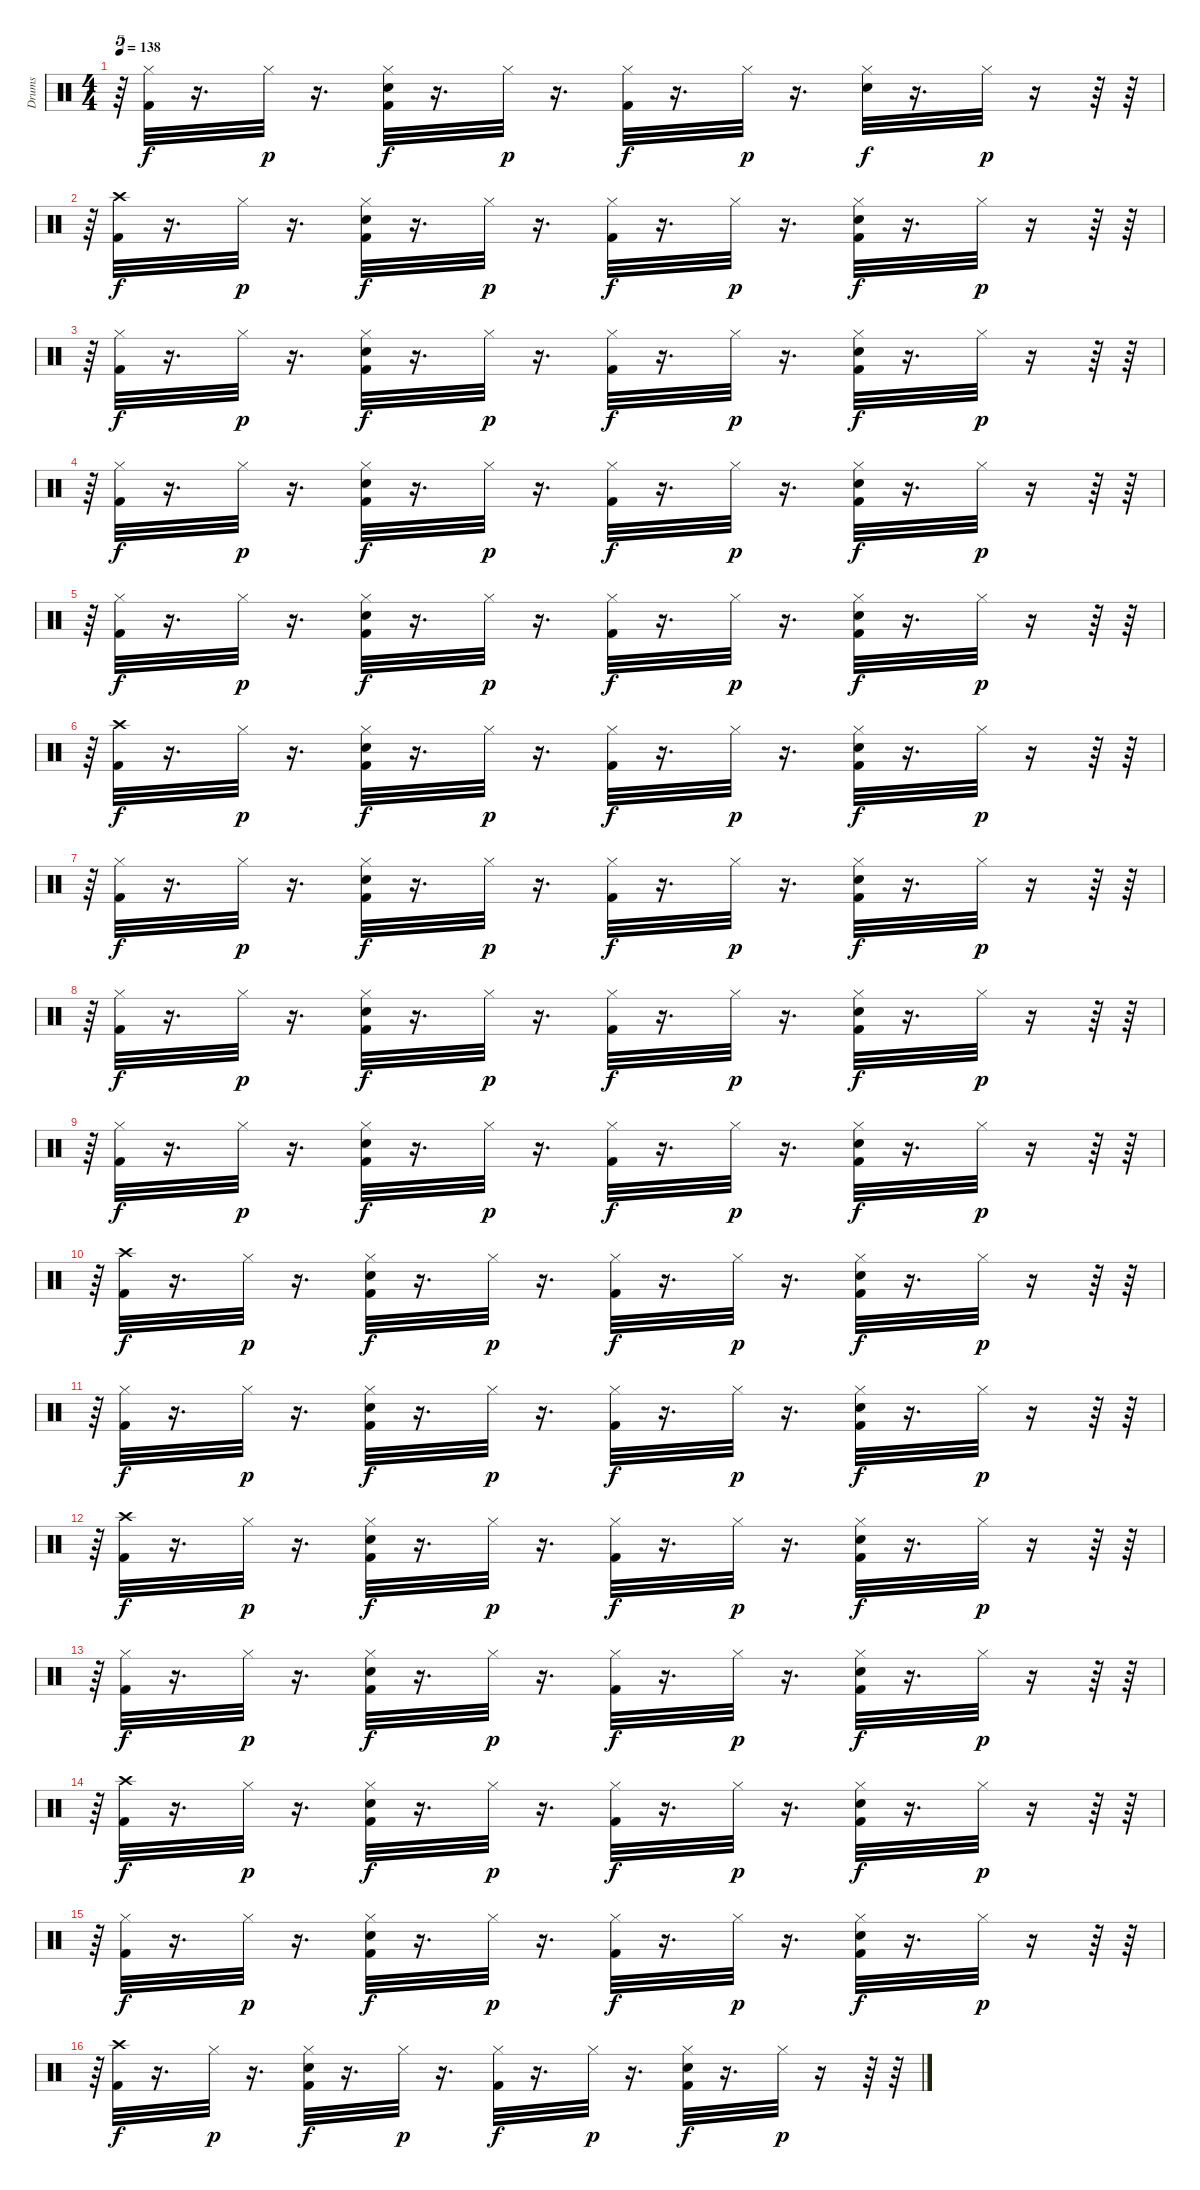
\track ("Drums" "Drums") {instrument percussion}
\staff {score}
\articulation defaults
\ts (4 4)
\tempo 138
\clef neutral
\ks c
r.64{tu (5 4) dy p} ("Hi-Hat (closed)" "Kick (hit) 2").32{dy f} r.16{d} "Hi-Hat (closed)".32{dy p} r.16{d} ("Kick (hit) 2" "Hi-Hat (closed)" "Electric Snare (hit)").32{dy f} r.16{d} "Hi-Hat (closed)".32{dy p} r.16{d} ("Hi-Hat (closed)" "Kick (hit) 2").32{dy f} r.16{d} "Hi-Hat (closed)".32{dy p} r.16{d} ("Hi-Hat (closed)" "Electric Snare (hit)").32{dy f} r.16{d} "Hi-Hat (closed)".32{dy p} r.16 r.64 r.64 |
r.64{tu (5 4)} ("Crash high (hit)" "Kick (hit) 2").32{dy f} r.16{d} "Hi-Hat (closed)".32{dy p} r.16{d} ("Kick (hit) 2" "Hi-Hat (closed)" "Electric Snare (hit)").32{dy f} r.16{d} "Hi-Hat (closed)".32{dy p} r.16{d} ("Hi-Hat (closed)" "Kick (hit) 2").32{dy f} r.16{d} "Hi-Hat (closed)".32{dy p} r.16{d} ("Kick (hit) 2" "Hi-Hat (closed)" "Electric Snare (hit)").32{dy f} r.16{d} "Hi-Hat (closed)".32{dy p} r.16 r.64 r.64 |
r.64{tu (5 4)} ("Hi-Hat (closed)" "Kick (hit) 2").32{dy f} r.16{d} "Hi-Hat (closed)".32{dy p} r.16{d} ("Kick (hit) 2" "Hi-Hat (closed)" "Electric Snare (hit)").32{dy f} r.16{d} "Hi-Hat (closed)".32{dy p} r.16{d} ("Hi-Hat (closed)" "Kick (hit) 2").32{dy f} r.16{d} "Hi-Hat (closed)".32{dy p} r.16{d} ("Kick (hit) 2" "Hi-Hat (closed)" "Electric Snare (hit)").32{dy f} r.16{d} "Hi-Hat (closed)".32{dy p} r.16 r.64 r.64 |
r.64{tu (5 4)} ("Hi-Hat (closed)" "Kick (hit) 2").32{dy f} r.16{d} "Hi-Hat (closed)".32{dy p} r.16{d} ("Kick (hit) 2" "Hi-Hat (closed)" "Electric Snare (hit)").32{dy f} r.16{d} "Hi-Hat (closed)".32{dy p} r.16{d} ("Hi-Hat (closed)" "Kick (hit) 2").32{dy f} r.16{d} "Hi-Hat (closed)".32{dy p} r.16{d} ("Kick (hit) 2" "Hi-Hat (closed)" "Electric Snare (hit)").32{dy f} r.16{d} "Hi-Hat (closed)".32{dy p} r.16 r.64 r.64 |
r.64{tu (5 4)} ("Hi-Hat (closed)" "Kick (hit) 2").32{dy f} r.16{d} "Hi-Hat (closed)".32{dy p} r.16{d} ("Kick (hit) 2" "Hi-Hat (closed)" "Electric Snare (hit)").32{dy f} r.16{d} "Hi-Hat (closed)".32{dy p} r.16{d} ("Hi-Hat (closed)" "Kick (hit) 2").32{dy f} r.16{d} "Hi-Hat (closed)".32{dy p} r.16{d} ("Kick (hit) 2" "Hi-Hat (closed)" "Electric Snare (hit)").32{dy f} r.16{d} "Hi-Hat (closed)".32{dy p} r.16 r.64 r.64 |
r.64{tu (5 4)} ("Crash high (hit)" "Kick (hit) 2").32{dy f} r.16{d} "Hi-Hat (closed)".32{dy p} r.16{d} ("Kick (hit) 2" "Hi-Hat (closed)" "Electric Snare (hit)").32{dy f} r.16{d} "Hi-Hat (closed)".32{dy p} r.16{d} ("Hi-Hat (closed)" "Kick (hit) 2").32{dy f} r.16{d} "Hi-Hat (closed)".32{dy p} r.16{d} ("Kick (hit) 2" "Hi-Hat (closed)" "Electric Snare (hit)").32{dy f} r.16{d} "Hi-Hat (closed)".32{dy p} r.16 r.64 r.64 |
r.64{tu (5 4)} ("Hi-Hat (closed)" "Kick (hit) 2").32{dy f} r.16{d} "Hi-Hat (closed)".32{dy p} r.16{d} ("Kick (hit) 2" "Hi-Hat (closed)" "Electric Snare (hit)").32{dy f} r.16{d} "Hi-Hat (closed)".32{dy p} r.16{d} ("Hi-Hat (closed)" "Kick (hit) 2").32{dy f} r.16{d} "Hi-Hat (closed)".32{dy p} r.16{d} ("Kick (hit) 2" "Hi-Hat (closed)" "Electric Snare (hit)").32{dy f} r.16{d} "Hi-Hat (closed)".32{dy p} r.16 r.64 r.64 |
r.64{tu (5 4)} ("Hi-Hat (closed)" "Kick (hit) 2").32{dy f} r.16{d} "Hi-Hat (closed)".32{dy p} r.16{d} ("Kick (hit) 2" "Hi-Hat (closed)" "Electric Snare (hit)").32{dy f} r.16{d} "Hi-Hat (closed)".32{dy p} r.16{d} ("Hi-Hat (closed)" "Kick (hit) 2").32{dy f} r.16{d} "Hi-Hat (closed)".32{dy p} r.16{d} ("Kick (hit) 2" "Hi-Hat (closed)" "Electric Snare (hit)").32{dy f} r.16{d} "Hi-Hat (closed)".32{dy p} r.16 r.64 r.64 |
r.64{tu (5 4)} ("Hi-Hat (closed)" "Kick (hit) 2").32{dy f} r.16{d} "Hi-Hat (closed)".32{dy p} r.16{d} ("Kick (hit) 2" "Hi-Hat (closed)" "Electric Snare (hit)").32{dy f} r.16{d} "Hi-Hat (closed)".32{dy p} r.16{d} ("Hi-Hat (closed)" "Kick (hit) 2").32{dy f} r.16{d} "Hi-Hat (closed)".32{dy p} r.16{d} ("Kick (hit) 2" "Hi-Hat (closed)" "Electric Snare (hit)").32{dy f} r.16{d} "Hi-Hat (closed)".32{dy p} r.16 r.64 r.64 |
r.64{tu (5 4)} ("Crash high (hit)" "Kick (hit) 2").32{dy f} r.16{d} "Hi-Hat (closed)".32{dy p} r.16{d} ("Kick (hit) 2" "Hi-Hat (closed)" "Electric Snare (hit)").32{dy f} r.16{d} "Hi-Hat (closed)".32{dy p} r.16{d} ("Hi-Hat (closed)" "Kick (hit) 2").32{dy f} r.16{d} "Hi-Hat (closed)".32{dy p} r.16{d} ("Kick (hit) 2" "Hi-Hat (closed)" "Electric Snare (hit)").32{dy f} r.16{d} "Hi-Hat (closed)".32{dy p} r.16 r.64 r.64 |
r.64{tu (5 4)} ("Hi-Hat (closed)" "Kick (hit) 2").32{dy f} r.16{d} "Hi-Hat (closed)".32{dy p} r.16{d} ("Kick (hit) 2" "Hi-Hat (closed)" "Electric Snare (hit)").32{dy f} r.16{d} "Hi-Hat (closed)".32{dy p} r.16{d} ("Hi-Hat (closed)" "Kick (hit) 2").32{dy f} r.16{d} "Hi-Hat (closed)".32{dy p} r.16{d} ("Kick (hit) 2" "Hi-Hat (closed)" "Electric Snare (hit)").32{dy f} r.16{d} "Hi-Hat (closed)".32{dy p} r.16 r.64 r.64 |
r.64{tu (5 4)} ("Crash high (hit)" "Kick (hit) 2").32{dy f} r.16{d} "Hi-Hat (closed)".32{dy p} r.16{d} ("Kick (hit) 2" "Hi-Hat (closed)" "Electric Snare (hit)").32{dy f} r.16{d} "Hi-Hat (closed)".32{dy p} r.16{d} ("Hi-Hat (closed)" "Kick (hit) 2").32{dy f} r.16{d} "Hi-Hat (closed)".32{dy p} r.16{d} ("Kick (hit) 2" "Hi-Hat (closed)" "Electric Snare (hit)").32{dy f} r.16{d} "Hi-Hat (closed)".32{dy p} r.16 r.64 r.64 |
r.64{tu (5 4)} ("Hi-Hat (closed)" "Kick (hit) 2").32{dy f} r.16{d} "Hi-Hat (closed)".32{dy p} r.16{d} ("Kick (hit) 2" "Hi-Hat (closed)" "Electric Snare (hit)").32{dy f} r.16{d} "Hi-Hat (closed)".32{dy p} r.16{d} ("Hi-Hat (closed)" "Kick (hit) 2").32{dy f} r.16{d} "Hi-Hat (closed)".32{dy p} r.16{d} ("Kick (hit) 2" "Hi-Hat (closed)" "Electric Snare (hit)").32{dy f} r.16{d} "Hi-Hat (closed)".32{dy p} r.16 r.64 r.64 |
r.64{tu (5 4)} ("Crash high (hit)" "Kick (hit) 2").32{dy f} r.16{d} "Hi-Hat (closed)".32{dy p} r.16{d} ("Kick (hit) 2" "Hi-Hat (closed)" "Electric Snare (hit)").32{dy f} r.16{d} "Hi-Hat (closed)".32{dy p} r.16{d} ("Hi-Hat (closed)" "Kick (hit) 2").32{dy f} r.16{d} "Hi-Hat (closed)".32{dy p} r.16{d} ("Kick (hit) 2" "Hi-Hat (closed)" "Electric Snare (hit)").32{dy f} r.16{d} "Hi-Hat (closed)".32{dy p} r.16 r.64 r.64 |
r.64{tu (5 4)} ("Hi-Hat (closed)" "Kick (hit) 2").32{dy f} r.16{d} "Hi-Hat (closed)".32{dy p} r.16{d} ("Kick (hit) 2" "Hi-Hat (closed)" "Electric Snare (hit)").32{dy f} r.16{d} "Hi-Hat (closed)".32{dy p} r.16{d} ("Hi-Hat (closed)" "Kick (hit) 2").32{dy f} r.16{d} "Hi-Hat (closed)".32{dy p} r.16{d} ("Kick (hit) 2" "Hi-Hat (closed)" "Electric Snare (hit)").32{dy f} r.16{d} "Hi-Hat (closed)".32{dy p} r.16 r.64 r.64 |
r.64{tu (5 4)} ("Crash high (hit)" "Kick (hit) 2").32{dy f} r.16{d} "Hi-Hat (closed)".32{dy p} r.16{d} ("Kick (hit) 2" "Hi-Hat (closed)" "Electric Snare (hit)").32{dy f} r.16{d} "Hi-Hat (closed)".32{dy p} r.16{d} ("Hi-Hat (closed)" "Kick (hit) 2").32{dy f} r.16{d} "Hi-Hat (closed)".32{dy p} r.16{d} ("Kick (hit) 2" "Hi-Hat (closed)" "Electric Snare (hit)").32{dy f} r.16{d} "Hi-Hat (closed)".32{dy p} r.16 r.64 r.64
